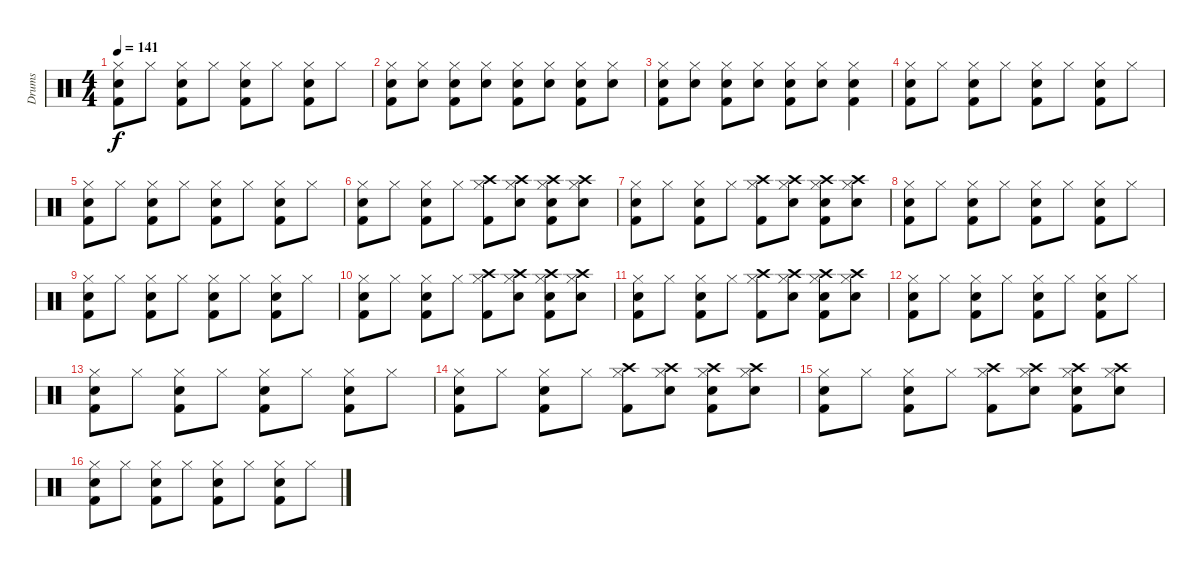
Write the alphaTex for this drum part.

\track ("Drums" "Drums") {instrument percussion}
\staff {score}
\articulation defaults
\ts (4 4)
\tempo 141
\clef neutral
\ks c
("Hi-Hat (closed)" "Electric Snare (hit)" "Kick (hit) 2").8{dy f} "Hi-Hat (closed)".8 ("Hi-Hat (closed)" "Electric Snare (hit)" "Kick (hit) 2").8 "Hi-Hat (closed)".8 ("Hi-Hat (closed)" "Electric Snare (hit)" "Kick (hit) 2").8 "Hi-Hat (closed)".8 ("Hi-Hat (closed)" "Electric Snare (hit)" "Kick (hit) 2").8 "Hi-Hat (closed)".8 |
("Hi-Hat (closed)" "Electric Snare (hit)" "Kick (hit) 2").8 ("Hi-Hat (closed)" "Electric Snare (hit)").8 ("Hi-Hat (closed)" "Electric Snare (hit)" "Kick (hit) 2").8 ("Hi-Hat (closed)" "Electric Snare (hit)").8 ("Hi-Hat (closed)" "Electric Snare (hit)" "Kick (hit) 2").8 ("Hi-Hat (closed)" "Electric Snare (hit)").8 ("Hi-Hat (closed)" "Electric Snare (hit)" "Kick (hit) 2").8 ("Hi-Hat (closed)" "Electric Snare (hit)").8 |
("Hi-Hat (closed)" "Electric Snare (hit)" "Kick (hit) 2").8 ("Hi-Hat (closed)" "Electric Snare (hit)").8 ("Hi-Hat (closed)" "Electric Snare (hit)" "Kick (hit) 2").8 ("Hi-Hat (closed)" "Electric Snare (hit)").8 ("Hi-Hat (closed)" "Electric Snare (hit)" "Kick (hit) 2").8 ("Hi-Hat (closed)" "Electric Snare (hit)").8 ("Hi-Hat (closed)" "Electric Snare (hit)" "Kick (hit) 2").4 |
("Hi-Hat (closed)" "Electric Snare (hit)" "Kick (hit) 2").8 "Hi-Hat (closed)".8 ("Hi-Hat (closed)" "Electric Snare (hit)" "Kick (hit) 2").8 "Hi-Hat (closed)".8 ("Hi-Hat (closed)" "Electric Snare (hit)" "Kick (hit) 2").8 "Hi-Hat (closed)".8 ("Hi-Hat (closed)" "Electric Snare (hit)" "Kick (hit) 2").8 "Hi-Hat (closed)".8 |
("Hi-Hat (closed)" "Electric Snare (hit)" "Kick (hit) 2").8 "Hi-Hat (closed)".8 ("Hi-Hat (closed)" "Electric Snare (hit)" "Kick (hit) 2").8 "Hi-Hat (closed)".8 ("Hi-Hat (closed)" "Electric Snare (hit)" "Kick (hit) 2").8 "Hi-Hat (closed)".8 ("Hi-Hat (closed)" "Electric Snare (hit)" "Kick (hit) 2").8 "Hi-Hat (closed)".8 |
("Hi-Hat (closed)" "Electric Snare (hit)" "Kick (hit) 2").8 "Hi-Hat (closed)".8 ("Hi-Hat (closed)" "Electric Snare (hit)" "Kick (hit) 2").8 "Hi-Hat (closed)".8 ("Hi-Hat (closed)" "Crash high (hit)" "Kick (hit) 2").8 ("Hi-Hat (closed)" "Crash high (hit)" "Electric Snare (hit)").8 ("Hi-Hat (closed)" "Crash high (hit)" "Electric Snare (hit)" "Kick (hit) 2").8 ("Hi-Hat (closed)" "Crash high (hit)" "Electric Snare (hit)").8 |
("Hi-Hat (closed)" "Electric Snare (hit)" "Kick (hit) 2").8 "Hi-Hat (closed)".8 ("Hi-Hat (closed)" "Electric Snare (hit)" "Kick (hit) 2").8 "Hi-Hat (closed)".8 ("Hi-Hat (closed)" "Crash high (hit)" "Kick (hit) 2").8 ("Hi-Hat (closed)" "Crash high (hit)" "Electric Snare (hit)").8 ("Hi-Hat (closed)" "Crash high (hit)" "Electric Snare (hit)" "Kick (hit) 2").8 ("Hi-Hat (closed)" "Crash high (hit)" "Electric Snare (hit)").8 |
("Hi-Hat (closed)" "Electric Snare (hit)" "Kick (hit) 2").8 "Hi-Hat (closed)".8 ("Hi-Hat (closed)" "Electric Snare (hit)" "Kick (hit) 2").8 "Hi-Hat (closed)".8 ("Hi-Hat (closed)" "Electric Snare (hit)" "Kick (hit) 2").8 "Hi-Hat (closed)".8 ("Hi-Hat (closed)" "Electric Snare (hit)" "Kick (hit) 2").8 "Hi-Hat (closed)".8 |
("Hi-Hat (closed)" "Electric Snare (hit)" "Kick (hit) 2").8 "Hi-Hat (closed)".8 ("Hi-Hat (closed)" "Electric Snare (hit)" "Kick (hit) 2").8 "Hi-Hat (closed)".8 ("Hi-Hat (closed)" "Electric Snare (hit)" "Kick (hit) 2").8 "Hi-Hat (closed)".8 ("Hi-Hat (closed)" "Electric Snare (hit)" "Kick (hit) 2").8 "Hi-Hat (closed)".8 |
("Hi-Hat (closed)" "Electric Snare (hit)" "Kick (hit) 2").8 "Hi-Hat (closed)".8 ("Hi-Hat (closed)" "Electric Snare (hit)" "Kick (hit) 2").8 "Hi-Hat (closed)".8 ("Hi-Hat (closed)" "Crash high (hit)" "Kick (hit) 2").8 ("Hi-Hat (closed)" "Crash high (hit)" "Electric Snare (hit)").8 ("Hi-Hat (closed)" "Crash high (hit)" "Electric Snare (hit)" "Kick (hit) 2").8 ("Hi-Hat (closed)" "Crash high (hit)" "Electric Snare (hit)").8 |
("Hi-Hat (closed)" "Electric Snare (hit)" "Kick (hit) 2").8 "Hi-Hat (closed)".8 ("Hi-Hat (closed)" "Electric Snare (hit)" "Kick (hit) 2").8 "Hi-Hat (closed)".8 ("Hi-Hat (closed)" "Crash high (hit)" "Kick (hit) 2").8 ("Hi-Hat (closed)" "Crash high (hit)" "Electric Snare (hit)").8 ("Hi-Hat (closed)" "Crash high (hit)" "Electric Snare (hit)" "Kick (hit) 2").8 ("Hi-Hat (closed)" "Crash high (hit)" "Electric Snare (hit)").8 |
("Hi-Hat (closed)" "Electric Snare (hit)" "Kick (hit) 2").8 "Hi-Hat (closed)".8 ("Hi-Hat (closed)" "Electric Snare (hit)" "Kick (hit) 2").8 "Hi-Hat (closed)".8 ("Hi-Hat (closed)" "Electric Snare (hit)" "Kick (hit) 2").8 "Hi-Hat (closed)".8 ("Hi-Hat (closed)" "Electric Snare (hit)" "Kick (hit) 2").8 "Hi-Hat (closed)".8 |
("Hi-Hat (closed)" "Electric Snare (hit)" "Kick (hit) 2").8 "Hi-Hat (closed)".8 ("Hi-Hat (closed)" "Electric Snare (hit)" "Kick (hit) 2").8 "Hi-Hat (closed)".8 ("Hi-Hat (closed)" "Electric Snare (hit)" "Kick (hit) 2").8 "Hi-Hat (closed)".8 ("Hi-Hat (closed)" "Electric Snare (hit)" "Kick (hit) 2").8 "Hi-Hat (closed)".8 |
("Hi-Hat (closed)" "Electric Snare (hit)" "Kick (hit) 2").8 "Hi-Hat (closed)".8 ("Hi-Hat (closed)" "Electric Snare (hit)" "Kick (hit) 2").8 "Hi-Hat (closed)".8 ("Hi-Hat (closed)" "Crash high (hit)" "Kick (hit) 2").8 ("Hi-Hat (closed)" "Crash high (hit)" "Electric Snare (hit)").8 ("Hi-Hat (closed)" "Crash high (hit)" "Electric Snare (hit)" "Kick (hit) 2").8 ("Hi-Hat (closed)" "Crash high (hit)" "Electric Snare (hit)").8 |
("Hi-Hat (closed)" "Electric Snare (hit)" "Kick (hit) 2").8 "Hi-Hat (closed)".8 ("Hi-Hat (closed)" "Electric Snare (hit)" "Kick (hit) 2").8 "Hi-Hat (closed)".8 ("Hi-Hat (closed)" "Crash high (hit)" "Kick (hit) 2").8 ("Hi-Hat (closed)" "Crash high (hit)" "Electric Snare (hit)").8 ("Hi-Hat (closed)" "Crash high (hit)" "Electric Snare (hit)" "Kick (hit) 2").8 ("Hi-Hat (closed)" "Crash high (hit)" "Electric Snare (hit)").8 |
("Hi-Hat (closed)" "Electric Snare (hit)" "Kick (hit) 2").8 "Hi-Hat (closed)".8 ("Hi-Hat (closed)" "Electric Snare (hit)" "Kick (hit) 2").8 "Hi-Hat (closed)".8 ("Hi-Hat (closed)" "Electric Snare (hit)" "Kick (hit) 2").8 "Hi-Hat (closed)".8 ("Hi-Hat (closed)" "Electric Snare (hit)" "Kick (hit) 2").8 "Hi-Hat (closed)".8
